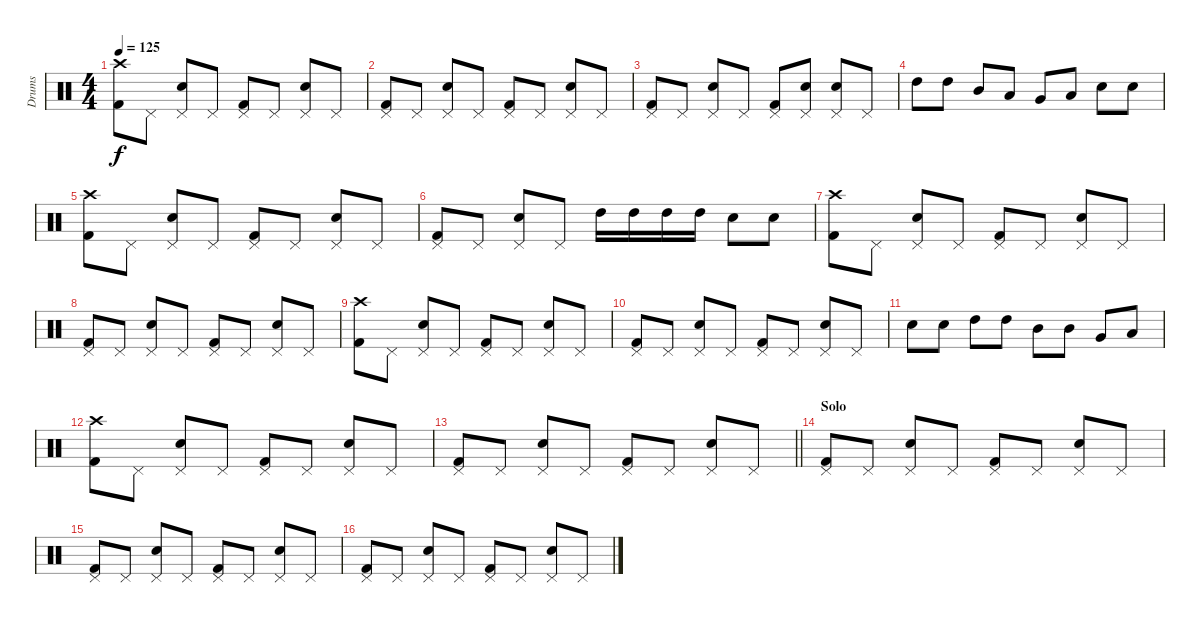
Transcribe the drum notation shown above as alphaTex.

\track ("Drums" "Drums") {instrument percussion}
\staff {score}
\articulation defaults
\ts (4 4)
\tempo 125
\clef neutral
\ks c
("Crash high (hit)" "Kick (hit) 2").8{dy f} "Pedal Hi-Hat (hit)".8 ("Pedal Hi-Hat (hit)" "Snare (hit) 2").8 "Pedal Hi-Hat (hit)".8 ("Pedal Hi-Hat (hit)" "Kick (hit) 2").8 "Pedal Hi-Hat (hit)".8 ("Pedal Hi-Hat (hit)" "Snare (hit) 2").8 "Pedal Hi-Hat (hit)".8 |
("Pedal Hi-Hat (hit)" "Kick (hit) 2").8 "Pedal Hi-Hat (hit)".8 ("Pedal Hi-Hat (hit)" "Snare (hit) 2").8 "Pedal Hi-Hat (hit)".8 ("Pedal Hi-Hat (hit)" "Kick (hit) 2").8 "Pedal Hi-Hat (hit)".8 ("Pedal Hi-Hat (hit)" "Snare (hit) 2").8 "Pedal Hi-Hat (hit)".8 |
("Pedal Hi-Hat (hit)" "Kick (hit) 2").8 "Pedal Hi-Hat (hit)".8 ("Pedal Hi-Hat (hit)" "Snare (hit) 2").8 "Pedal Hi-Hat (hit)".8 ("Pedal Hi-Hat (hit)" "Kick (hit) 2").8 ("Pedal Hi-Hat (hit)" "Snare (hit) 2").8 ("Pedal Hi-Hat (hit)" "Snare (hit) 2").8 "Pedal Hi-Hat (hit)".8 |
"High Tom (hit)".8 "High Tom (hit)".8 "Mid Tom (hit)".8 "Low Tom (hit)".8 "Very Low Tom (hit)".8 "Low Floor Tom (hit)".8 "Snare (hit) 2".8 "Snare (hit) 2".8 |
("Crash high (hit)" "Kick (hit) 2").8 "Pedal Hi-Hat (hit)".8 ("Pedal Hi-Hat (hit)" "Snare (hit) 2").8 "Pedal Hi-Hat (hit)".8 ("Pedal Hi-Hat (hit)" "Kick (hit) 2").8 "Pedal Hi-Hat (hit)".8 ("Pedal Hi-Hat (hit)" "Snare (hit) 2").8 "Pedal Hi-Hat (hit)".8 |
("Pedal Hi-Hat (hit)" "Kick (hit) 2").8 "Pedal Hi-Hat (hit)".8 ("Pedal Hi-Hat (hit)" "Snare (hit) 2").8 "Pedal Hi-Hat (hit)".8 "High Tom (hit)".16 "High Tom (hit)".16 "High Tom (hit)".16 "High Tom (hit)".16 "Snare (hit) 2".8 "Snare (hit) 2".8 |
("Crash high (hit)" "Kick (hit) 2").8 "Pedal Hi-Hat (hit)".8 ("Pedal Hi-Hat (hit)" "Snare (hit) 2").8 "Pedal Hi-Hat (hit)".8 ("Pedal Hi-Hat (hit)" "Kick (hit) 2").8 "Pedal Hi-Hat (hit)".8 ("Pedal Hi-Hat (hit)" "Snare (hit) 2").8 "Pedal Hi-Hat (hit)".8 |
("Pedal Hi-Hat (hit)" "Kick (hit) 2").8 "Pedal Hi-Hat (hit)".8 ("Pedal Hi-Hat (hit)" "Snare (hit) 2").8 "Pedal Hi-Hat (hit)".8 ("Pedal Hi-Hat (hit)" "Kick (hit) 2").8 "Pedal Hi-Hat (hit)".8 ("Pedal Hi-Hat (hit)" "Snare (hit) 2").8 "Pedal Hi-Hat (hit)".8 |
("Crash high (hit)" "Kick (hit) 2").8 "Pedal Hi-Hat (hit)".8 ("Pedal Hi-Hat (hit)" "Snare (hit) 2").8 "Pedal Hi-Hat (hit)".8 ("Pedal Hi-Hat (hit)" "Kick (hit) 2").8 "Pedal Hi-Hat (hit)".8 ("Pedal Hi-Hat (hit)" "Snare (hit) 2").8 "Pedal Hi-Hat (hit)".8 |
("Pedal Hi-Hat (hit)" "Kick (hit) 2").8 "Pedal Hi-Hat (hit)".8 ("Pedal Hi-Hat (hit)" "Snare (hit) 2").8 "Pedal Hi-Hat (hit)".8 ("Pedal Hi-Hat (hit)" "Kick (hit) 2").8 "Pedal Hi-Hat (hit)".8 ("Pedal Hi-Hat (hit)" "Snare (hit) 2").8 "Pedal Hi-Hat (hit)".8 |
"Snare (hit) 2".8 "Snare (hit) 2".8 "High Tom (hit)".8 "High Tom (hit)".8 "Mid Tom (hit)".8 "Mid Tom (hit)".8 "Very Low Tom (hit)".8 "Low Floor Tom (hit)".8 |
("Crash high (hit)" "Kick (hit) 2").8 "Pedal Hi-Hat (hit)".8 ("Pedal Hi-Hat (hit)" "Snare (hit) 2").8 "Pedal Hi-Hat (hit)".8 ("Pedal Hi-Hat (hit)" "Kick (hit) 2").8 "Pedal Hi-Hat (hit)".8 ("Pedal Hi-Hat (hit)" "Snare (hit) 2").8 "Pedal Hi-Hat (hit)".8 |
\barLineRight lightlight
("Pedal Hi-Hat (hit)" "Kick (hit) 2").8 "Pedal Hi-Hat (hit)".8 ("Pedal Hi-Hat (hit)" "Snare (hit) 2").8 "Pedal Hi-Hat (hit)".8 ("Pedal Hi-Hat (hit)" "Kick (hit) 2").8 "Pedal Hi-Hat (hit)".8 ("Pedal Hi-Hat (hit)" "Snare (hit) 2").8 "Pedal Hi-Hat (hit)".8 |
\section ("" "Solo")
("Pedal Hi-Hat (hit)" "Kick (hit) 2").8 "Pedal Hi-Hat (hit)".8 ("Pedal Hi-Hat (hit)" "Snare (hit) 2").8 "Pedal Hi-Hat (hit)".8 ("Pedal Hi-Hat (hit)" "Kick (hit) 2").8 "Pedal Hi-Hat (hit)".8 ("Pedal Hi-Hat (hit)" "Snare (hit) 2").8 "Pedal Hi-Hat (hit)".8 |
("Pedal Hi-Hat (hit)" "Kick (hit) 2").8 "Pedal Hi-Hat (hit)".8 ("Pedal Hi-Hat (hit)" "Snare (hit) 2").8 "Pedal Hi-Hat (hit)".8 ("Pedal Hi-Hat (hit)" "Kick (hit) 2").8 "Pedal Hi-Hat (hit)".8 ("Pedal Hi-Hat (hit)" "Snare (hit) 2").8 "Pedal Hi-Hat (hit)".8 |
("Pedal Hi-Hat (hit)" "Kick (hit) 2").8 "Pedal Hi-Hat (hit)".8 ("Pedal Hi-Hat (hit)" "Snare (hit) 2").8 "Pedal Hi-Hat (hit)".8 ("Pedal Hi-Hat (hit)" "Kick (hit) 2").8 "Pedal Hi-Hat (hit)".8 ("Pedal Hi-Hat (hit)" "Snare (hit) 2").8 "Pedal Hi-Hat (hit)".8
